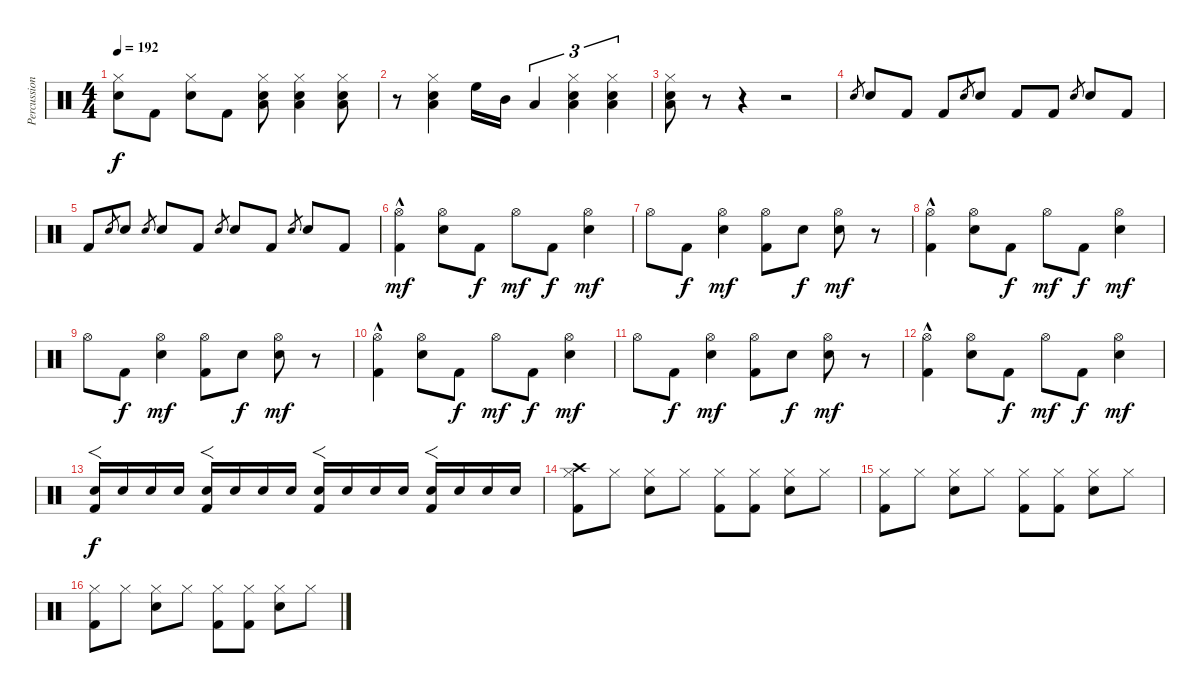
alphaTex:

\track ("Percussions" "Percussion") {instrument percussion}
\staff {score}
\articulation defaults
\ts (4 4)
\tempo 192
\clef neutral
\ks c
("Snare (hit) 2" "Hi-Hat (closed)").8{dy f} "Kick (hit) 2".8 ("Snare (hit) 2" "Hi-Hat (closed)").8 "Kick (hit) 2".8 ("Snare (hit) 2" "Low Tom (hit)" "Hi-Hat (closed)").8 ("Snare (hit) 2" "Low Tom (hit)" "Hi-Hat (closed)").4 ("Snare (hit) 2" "Low Tom (hit)" "Hi-Hat (closed)").8 |
r.8 ("Snare (hit) 2" "Low Floor Tom (hit)" "Hi-Hat (closed)").4 "High Floor Tom (hit)".16 "Mid Tom (hit)".16 "Low Tom (hit)".4{tu (3 2)} ("Snare (hit) 2" "Low Floor Tom (hit)" "Hi-Hat (closed)").4{tu (3 2)} ("Snare (hit) 2" "Low Floor Tom (hit)" "Hi-Hat (closed)").4{tu (3 2)} |
("Snare (hit) 2" "Low Floor Tom (hit)" "Hi-Hat (closed)").8 r.8 r.4 r.2 |
"Snare (hit) 2".8{gr} "Snare (hit) 2".8 "Kick (hit) 2".8 "Kick (hit) 2".8 "Snare (hit) 2".8{gr} "Snare (hit) 2".8 "Kick (hit) 2".8 "Kick (hit) 2".8 "Snare (hit) 2".8{gr} "Snare (hit) 2".8 "Kick (hit) 2".8 |
"Kick (hit) 2".8 "Snare (hit) 2".8{gr} "Snare (hit) 2".8 "Snare (hit) 2".8{gr} "Snare (hit) 2".8 "Kick (hit) 2".8 "Snare (hit) 2".8{gr} "Snare (hit) 2".8 "Kick (hit) 2".8 "Snare (hit) 2".8{gr} "Snare (hit) 2".8 "Kick (hit) 2".8 |
("Hi-Hat (open)" "Kick (hit) 2"{hac}).4{dy mf} ("Snare (hit) 2" "Hi-Hat (open)").8 "Kick (hit) 2".8{dy f} "Hi-Hat (open)".8{dy mf} "Kick (hit) 2".8{dy f} ("Snare (hit) 2" "Hi-Hat (open)").4{dy mf} |
"Hi-Hat (open)".8 "Kick (hit) 2".8{dy f} ("Snare (hit) 2" "Hi-Hat (open)").4{dy mf} ("Hi-Hat (open)" "Kick (hit) 2").8 "Snare (hit) 2".8{dy f} ("Snare (hit) 2" "Hi-Hat (open)").8{dy mf} r.8 |
("Hi-Hat (open)" "Kick (hit) 2"{hac}).4 ("Snare (hit) 2" "Hi-Hat (open)").8 "Kick (hit) 2".8{dy f} "Hi-Hat (open)".8{dy mf} "Kick (hit) 2".8{dy f} ("Snare (hit) 2" "Hi-Hat (open)").4{dy mf} |
"Hi-Hat (open)".8 "Kick (hit) 2".8{dy f} ("Snare (hit) 2" "Hi-Hat (open)").4{dy mf} ("Hi-Hat (open)" "Kick (hit) 2").8 "Snare (hit) 2".8{dy f} ("Snare (hit) 2" "Hi-Hat (open)").8{dy mf} r.8 |
("Hi-Hat (open)" "Kick (hit) 2"{hac}).4 ("Snare (hit) 2" "Hi-Hat (open)").8 "Kick (hit) 2".8{dy f} "Hi-Hat (open)".8{dy mf} "Kick (hit) 2".8{dy f} ("Snare (hit) 2" "Hi-Hat (open)").4{dy mf} |
"Hi-Hat (open)".8 "Kick (hit) 2".8{dy f} ("Snare (hit) 2" "Hi-Hat (open)").4{dy mf} ("Hi-Hat (open)" "Kick (hit) 2").8 "Snare (hit) 2".8{dy f} ("Snare (hit) 2" "Hi-Hat (open)").8{dy mf} r.8 |
("Hi-Hat (open)" "Kick (hit) 2"{hac}).4 ("Snare (hit) 2" "Hi-Hat (open)").8 "Kick (hit) 2".8{dy f} "Hi-Hat (open)".8{dy mf} "Kick (hit) 2".8{dy f} ("Snare (hit) 2" "Hi-Hat (open)").4{dy mf} |
("Snare (hit) 2" "Kick (hit) 2").16{f dy f} "Snare (hit) 2".16 "Snare (hit) 2".16 "Snare (hit) 2".16 ("Snare (hit) 2" "Kick (hit) 2").16{f} "Snare (hit) 2".16 "Snare (hit) 2".16 "Snare (hit) 2".16 ("Snare (hit) 2" "Kick (hit) 2").16{f} "Snare (hit) 2".16 "Snare (hit) 2".16 "Snare (hit) 2".16 ("Snare (hit) 2" "Kick (hit) 2").16{f} "Snare (hit) 2".16 "Snare (hit) 2".16 "Snare (hit) 2".16 |
("Hi-Hat (closed)" "Kick (hit) 2" "Crash high (hit)").8 "Hi-Hat (closed)".8 ("Snare (hit) 2" "Hi-Hat (closed)").8 "Hi-Hat (closed)".8 ("Hi-Hat (closed)" "Kick (hit) 2").8 ("Hi-Hat (closed)" "Kick (hit) 2").8 ("Snare (hit) 2" "Hi-Hat (closed)").8 "Hi-Hat (closed)".8 |
("Hi-Hat (closed)" "Kick (hit) 2").8 "Hi-Hat (closed)".8 ("Snare (hit) 2" "Hi-Hat (closed)").8 "Hi-Hat (closed)".8 ("Hi-Hat (closed)" "Kick (hit) 2").8 ("Hi-Hat (closed)" "Kick (hit) 2").8 ("Snare (hit) 2" "Hi-Hat (closed)").8 "Hi-Hat (closed)".8 |
("Hi-Hat (closed)" "Kick (hit) 2").8 "Hi-Hat (closed)".8 ("Snare (hit) 2" "Hi-Hat (closed)").8 "Hi-Hat (closed)".8 ("Hi-Hat (closed)" "Kick (hit) 2").8 ("Hi-Hat (closed)" "Kick (hit) 2").8 ("Snare (hit) 2" "Hi-Hat (closed)").8 "Hi-Hat (closed)".8
